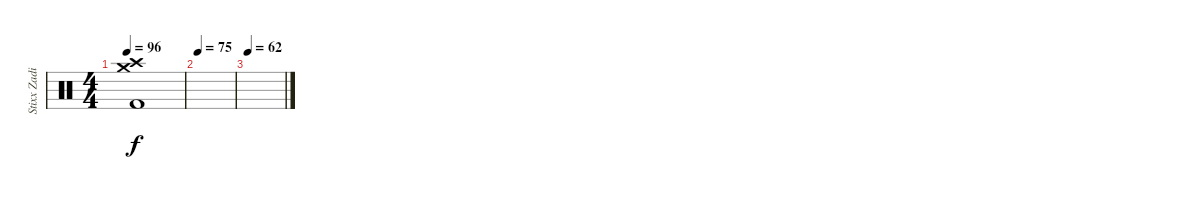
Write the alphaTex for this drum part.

\track ("Stixx Zadinia" "Stixx Zadi") {instrument percussion}
\staff {score}
\articulation defaults
\ts (4 4)
\tempo 96
\clef neutral
\ks c
("Crash high (hit)" "Crash medium (hit)" "Kick (hit) 2").1{dy f} |
\tempo 75
|
\tempo 62
